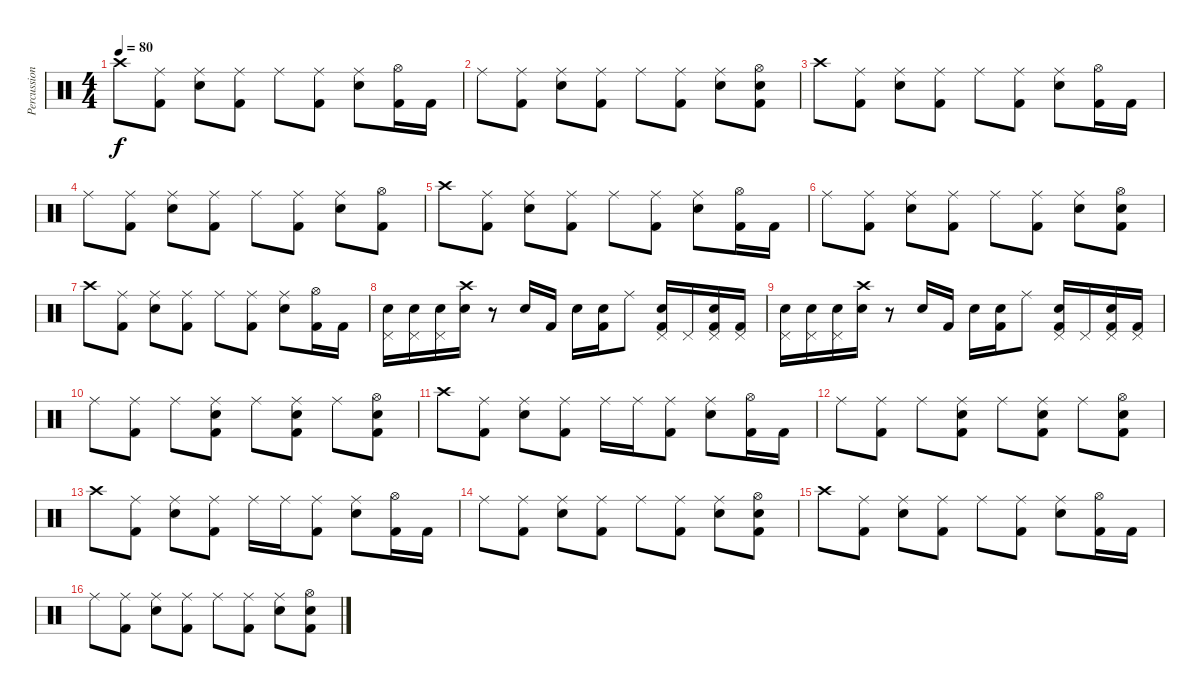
\track ("Percussion" "Percussion") {instrument percussion}
\staff {score}
\articulation defaults
\ts (4 4)
\tempo 80
\clef neutral
\ks c "Crash high (hit)".8{dy f}
("Ride (middle)" "Kick (hit) 2").8 ("Ride (middle)" "Electric Snare (hit)").8 ("Ride (middle)" "Kick (hit) 2").8 "Ride (middle)".8 ("Ride (middle)" "Kick (hit) 2").8 ("Ride (middle)" "Electric Snare (hit)").8 ("Hi-Hat (open)" "Kick (hit) 2").16 "Kick (hit) 2".16 |
"Ride (middle)".8 ("Ride (middle)" "Kick (hit) 2").8 ("Ride (middle)" "Electric Snare (hit)").8 ("Ride (middle)" "Kick (hit) 2").8 "Ride (middle)".8 ("Ride (middle)" "Kick (hit) 2").8 ("Ride (middle)" "Electric Snare (hit)").8 ("Hi-Hat (open)" "Electric Snare (hit)" "Kick (hit) 2").8 |
"Crash high (hit)".8 ("Ride (middle)" "Kick (hit) 2").8 ("Ride (middle)" "Electric Snare (hit)").8 ("Ride (middle)" "Kick (hit) 2").8 "Ride (middle)".8 ("Ride (middle)" "Kick (hit) 2").8 ("Ride (middle)" "Electric Snare (hit)").8 ("Hi-Hat (open)" "Kick (hit) 2").16 "Kick (hit) 2".16 |
"Ride (middle)".8 ("Ride (middle)" "Kick (hit) 2").8 ("Ride (middle)" "Electric Snare (hit)").8 ("Ride (middle)" "Kick (hit) 2").8 "Ride (middle)".8 ("Ride (middle)" "Kick (hit) 2").8 ("Ride (middle)" "Electric Snare (hit)").8 ("Hi-Hat (open)" "Kick (hit) 2").8 |
"Crash high (hit)".8 ("Ride (middle)" "Kick (hit) 2").8 ("Ride (middle)" "Electric Snare (hit)").8 ("Ride (middle)" "Kick (hit) 2").8 "Ride (middle)".8 ("Ride (middle)" "Kick (hit) 2").8 ("Ride (middle)" "Electric Snare (hit)").8 ("Hi-Hat (open)" "Kick (hit) 2").16 "Kick (hit) 2".16 |
"Ride (middle)".8 ("Ride (middle)" "Kick (hit) 2").8 ("Ride (middle)" "Electric Snare (hit)").8 ("Ride (middle)" "Kick (hit) 2").8 "Ride (middle)".8 ("Ride (middle)" "Kick (hit) 2").8 ("Ride (middle)" "Electric Snare (hit)").8 ("Hi-Hat (open)" "Electric Snare (hit)" "Kick (hit) 2").8 |
"Crash high (hit)".8 ("Ride (middle)" "Kick (hit) 2").8 ("Ride (middle)" "Electric Snare (hit)").8 ("Ride (middle)" "Kick (hit) 2").8 "Ride (middle)".8 ("Ride (middle)" "Kick (hit) 2").8 ("Ride (middle)" "Electric Snare (hit)").8 ("Hi-Hat (open)" "Kick (hit) 2").16 "Kick (hit) 2".16 |
("Pedal Hi-Hat (hit)" "Electric Snare (hit)").16 ("Pedal Hi-Hat (hit)" "Electric Snare (hit)").16 ("Pedal Hi-Hat (hit)" "Electric Snare (hit)").16 ("Crash high (hit)" "Electric Snare (hit)").16 r.8 "Electric Snare (hit)".16 "Kick (hit) 2".16 "Electric Snare (hit)".16 ("Electric Snare (hit)" "Kick (hit) 2").16 "Ride (middle)".8 ("Pedal Hi-Hat (hit)" "Electric Snare (hit)" "Kick (hit) 2").16 "Pedal Hi-Hat (hit)".16 ("Pedal Hi-Hat (hit)" "Electric Snare (hit)" "Kick (hit) 2").16 ("Pedal Hi-Hat (hit)" "Kick (hit) 2").16 |
("Pedal Hi-Hat (hit)" "Electric Snare (hit)").16 ("Pedal Hi-Hat (hit)" "Electric Snare (hit)").16 ("Pedal Hi-Hat (hit)" "Electric Snare (hit)").16 ("Crash high (hit)" "Electric Snare (hit)").16 r.8 "Electric Snare (hit)".16 "Kick (hit) 2".16 "Electric Snare (hit)".16 ("Electric Snare (hit)" "Kick (hit) 2").16 "Ride (middle)".8 ("Pedal Hi-Hat (hit)" "Electric Snare (hit)" "Kick (hit) 2").16 "Pedal Hi-Hat (hit)".16 ("Pedal Hi-Hat (hit)" "Electric Snare (hit)" "Kick (hit) 2").16 ("Pedal Hi-Hat (hit)" "Kick (hit) 2").16 |
"Ride (middle)".8 ("Ride (middle)" "Kick (hit) 2").8 "Ride (middle)".8 ("Ride (middle)" "Electric Snare (hit)" "Kick (hit) 2").8 "Ride (middle)".8 ("Ride (middle)" "Electric Snare (hit)" "Kick (hit) 2").8 "Ride (middle)".8 ("Hi-Hat (open)" "Electric Snare (hit)" "Kick (hit) 2").8 |
"Crash high (hit)".8 ("Ride (middle)" "Kick (hit) 2").8 ("Ride (middle)" "Electric Snare (hit)").8 ("Ride (middle)" "Kick (hit) 2").8 "Ride (middle)".16 "Ride (middle)".16 ("Ride (middle)" "Kick (hit) 2").8 ("Ride (middle)" "Electric Snare (hit)").8 ("Hi-Hat (open)" "Kick (hit) 2").16 "Kick (hit) 2".16 |
"Ride (middle)".8 ("Ride (middle)" "Kick (hit) 2").8 "Ride (middle)".8 ("Ride (middle)" "Electric Snare (hit)" "Kick (hit) 2").8 "Ride (middle)".8 ("Ride (middle)" "Electric Snare (hit)" "Kick (hit) 2").8 "Ride (middle)".8 ("Hi-Hat (open)" "Electric Snare (hit)" "Kick (hit) 2").8 |
"Crash high (hit)".8 ("Ride (middle)" "Kick (hit) 2").8 ("Ride (middle)" "Electric Snare (hit)").8 ("Ride (middle)" "Kick (hit) 2").8 "Ride (middle)".16 "Ride (middle)".16 ("Ride (middle)" "Kick (hit) 2").8 ("Ride (middle)" "Electric Snare (hit)").8 ("Hi-Hat (open)" "Kick (hit) 2").16 "Kick (hit) 2".16 |
"Ride (middle)".8 ("Ride (middle)" "Kick (hit) 2").8 ("Ride (middle)" "Electric Snare (hit)").8 ("Ride (middle)" "Kick (hit) 2").8 "Ride (middle)".8 ("Ride (middle)" "Kick (hit) 2").8 ("Ride (middle)" "Electric Snare (hit)").8 ("Hi-Hat (open)" "Electric Snare (hit)" "Kick (hit) 2").8 |
"Crash high (hit)".8 ("Ride (middle)" "Kick (hit) 2").8 ("Ride (middle)" "Electric Snare (hit)").8 ("Ride (middle)" "Kick (hit) 2").8 "Ride (middle)".8 ("Ride (middle)" "Kick (hit) 2").8 ("Ride (middle)" "Electric Snare (hit)").8 ("Hi-Hat (open)" "Kick (hit) 2").16 "Kick (hit) 2".16 |
"Ride (middle)".8 ("Ride (middle)" "Kick (hit) 2").8 ("Ride (middle)" "Electric Snare (hit)").8 ("Ride (middle)" "Kick (hit) 2").8 "Ride (middle)".8 ("Ride (middle)" "Kick (hit) 2").8 ("Ride (middle)" "Electric Snare (hit)").8 ("Hi-Hat (open)" "Electric Snare (hit)" "Kick (hit) 2").8
